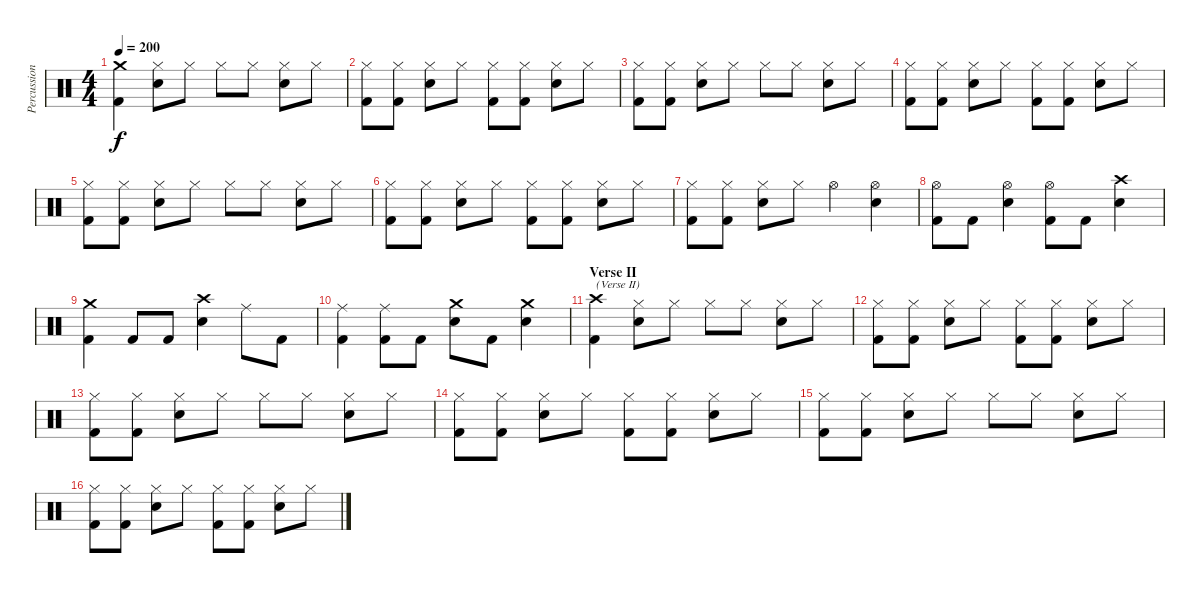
\track ("Percussion" "Percussion") {instrument percussion}
\staff {score}
\articulation defaults
\ts (4 4)
\tempo 200
\clef neutral
\ks c
("Crash medium (hit)" "Kick (hit) 2").4{dy f} ("Hi-Hat (closed)" "Electric Snare (hit)").8 "Hi-Hat (closed)".8 "Hi-Hat (closed)".8 "Hi-Hat (closed)".8 ("Hi-Hat (closed)" "Electric Snare (hit)").8 "Hi-Hat (closed)".8 |
("Hi-Hat (closed)" "Kick (hit) 2").8 ("Hi-Hat (closed)" "Kick (hit) 2").8 ("Hi-Hat (closed)" "Electric Snare (hit)").8 "Hi-Hat (closed)".8 ("Hi-Hat (closed)" "Kick (hit) 2").8 ("Hi-Hat (closed)" "Kick (hit) 2").8 ("Hi-Hat (closed)" "Electric Snare (hit)").8 "Hi-Hat (closed)".8 |
("Hi-Hat (closed)" "Kick (hit) 2").8 ("Hi-Hat (closed)" "Kick (hit) 2").8 ("Hi-Hat (closed)" "Electric Snare (hit)").8 "Hi-Hat (closed)".8 "Hi-Hat (closed)".8 "Hi-Hat (closed)".8 ("Hi-Hat (closed)" "Electric Snare (hit)").8 "Hi-Hat (closed)".8 |
("Hi-Hat (closed)" "Kick (hit) 2").8 ("Hi-Hat (closed)" "Kick (hit) 2").8 ("Hi-Hat (closed)" "Electric Snare (hit)").8 "Hi-Hat (closed)".8 ("Hi-Hat (closed)" "Kick (hit) 2").8 ("Hi-Hat (closed)" "Kick (hit) 2").8 ("Hi-Hat (closed)" "Electric Snare (hit)").8 "Hi-Hat (closed)".8 |
("Hi-Hat (closed)" "Kick (hit) 2").8 ("Hi-Hat (closed)" "Kick (hit) 2").8 ("Hi-Hat (closed)" "Electric Snare (hit)").8 "Hi-Hat (closed)".8 "Hi-Hat (closed)".8 "Hi-Hat (closed)".8 ("Hi-Hat (closed)" "Electric Snare (hit)").8 "Hi-Hat (closed)".8 |
("Hi-Hat (closed)" "Kick (hit) 2").8 ("Hi-Hat (closed)" "Kick (hit) 2").8 ("Hi-Hat (closed)" "Electric Snare (hit)").8 "Hi-Hat (closed)".8 ("Hi-Hat (closed)" "Kick (hit) 2").8 ("Hi-Hat (closed)" "Kick (hit) 2").8 ("Hi-Hat (closed)" "Electric Snare (hit)").8 "Hi-Hat (closed)".8 |
("Hi-Hat (closed)" "Kick (hit) 2").8 ("Hi-Hat (closed)" "Kick (hit) 2").8 ("Hi-Hat (closed)" "Electric Snare (hit)").8 "Hi-Hat (closed)".8 "Hi-Hat (open)".4 ("Hi-Hat (open)" "Electric Snare (hit)").4 |
("Hi-Hat (open)" "Kick (hit) 2").8 "Kick (hit) 2".8 ("Hi-Hat (open)" "Electric Snare (hit)").4 ("Hi-Hat (open)" "Kick (hit) 2").8 "Kick (hit) 2".8 ("Crash high (hit)" "Electric Snare (hit)").4 |
("Crash medium (hit)" "Kick (hit) 2").4 "Kick (hit) 2".8 "Kick (hit) 2".8 ("Crash high (hit)" "Electric Snare (hit)").4 "Ride (middle)".8 "Kick (hit) 2".8 |
("Ride (middle)" "Kick (hit) 2").4 ("Ride (middle)" "Kick (hit) 2").8 "Kick (hit) 2".8 ("Crash medium (hit)" "Electric Snare (hit)").8 "Kick (hit) 2".8 ("Crash medium (hit)" "Electric Snare (hit)").4 |
\section ("" "Verse II")
("Crash high (hit)" "Kick (hit) 2").4{txt "(Verse II)"} ("Hi-Hat (closed)" "Electric Snare (hit)").8 "Hi-Hat (closed)".8 "Hi-Hat (closed)".8 "Hi-Hat (closed)".8 ("Hi-Hat (closed)" "Electric Snare (hit)").8 "Hi-Hat (closed)".8 |
("Hi-Hat (closed)" "Kick (hit) 2").8 ("Hi-Hat (closed)" "Kick (hit) 2").8 ("Hi-Hat (closed)" "Electric Snare (hit)").8 "Hi-Hat (closed)".8 ("Hi-Hat (closed)" "Kick (hit) 2").8 ("Hi-Hat (closed)" "Kick (hit) 2").8 ("Hi-Hat (closed)" "Electric Snare (hit)").8 "Hi-Hat (closed)".8 |
("Hi-Hat (closed)" "Kick (hit) 2").8 ("Hi-Hat (closed)" "Kick (hit) 2").8 ("Hi-Hat (closed)" "Electric Snare (hit)").8 "Hi-Hat (closed)".8 "Hi-Hat (closed)".8 "Hi-Hat (closed)".8 ("Hi-Hat (closed)" "Electric Snare (hit)").8 "Hi-Hat (closed)".8 |
("Hi-Hat (closed)" "Kick (hit) 2").8 ("Hi-Hat (closed)" "Kick (hit) 2").8 ("Hi-Hat (closed)" "Electric Snare (hit)").8 "Hi-Hat (closed)".8 ("Hi-Hat (closed)" "Kick (hit) 2").8 ("Hi-Hat (closed)" "Kick (hit) 2").8 ("Hi-Hat (closed)" "Electric Snare (hit)").8 "Hi-Hat (closed)".8 |
("Hi-Hat (closed)" "Kick (hit) 2").8 ("Hi-Hat (closed)" "Kick (hit) 2").8 ("Hi-Hat (closed)" "Electric Snare (hit)").8 "Hi-Hat (closed)".8 "Hi-Hat (closed)".8 "Hi-Hat (closed)".8 ("Hi-Hat (closed)" "Electric Snare (hit)").8 "Hi-Hat (closed)".8 |
("Hi-Hat (closed)" "Kick (hit) 2").8 ("Hi-Hat (closed)" "Kick (hit) 2").8 ("Hi-Hat (closed)" "Electric Snare (hit)").8 "Hi-Hat (closed)".8 ("Hi-Hat (closed)" "Kick (hit) 2").8 ("Hi-Hat (closed)" "Kick (hit) 2").8 ("Hi-Hat (closed)" "Electric Snare (hit)").8 "Hi-Hat (closed)".8
